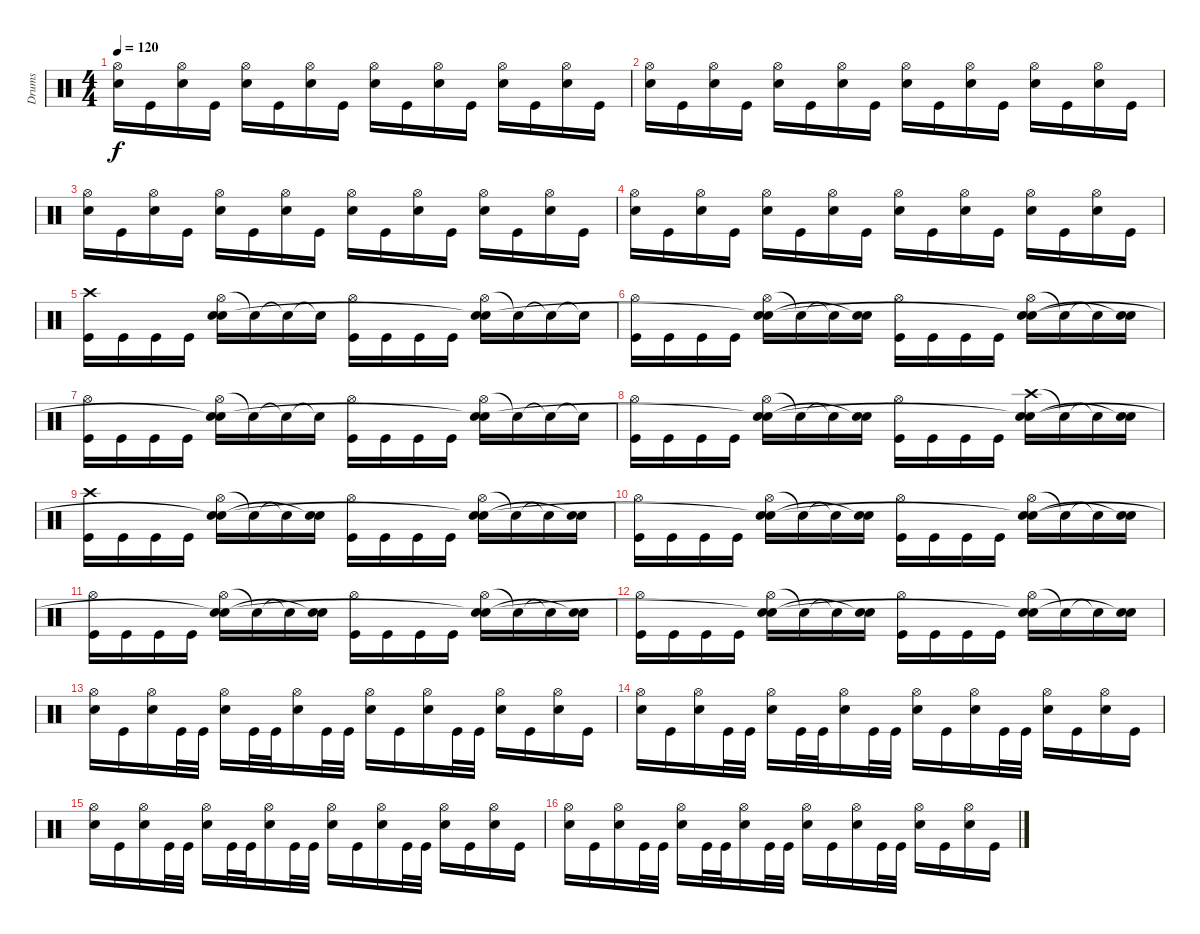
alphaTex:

\track ("Drums" "Drums") {instrument percussion}
\staff {score}
\articulation defaults
\ts (4 4)
\tempo 120
\clef neutral
\ks c
("Hi-Hat (open)" "Electric Snare (hit)").16{dy f} "Kick (hit)".16 ("Hi-Hat (open)" "Electric Snare (hit)").16 "Kick (hit)".16 ("Hi-Hat (open)" "Electric Snare (hit)").16 "Kick (hit)".16 ("Hi-Hat (open)" "Electric Snare (hit)").16 "Kick (hit)".16 ("Hi-Hat (open)" "Electric Snare (hit)").16 "Kick (hit)".16 ("Hi-Hat (open)" "Electric Snare (hit)").16 "Kick (hit)".16 ("Hi-Hat (open)" "Electric Snare (hit)").16 "Kick (hit)".16 ("Hi-Hat (open)" "Electric Snare (hit)").16 "Kick (hit)".16 |
("Hi-Hat (open)" "Electric Snare (hit)").16 "Kick (hit)".16 ("Hi-Hat (open)" "Electric Snare (hit)").16 "Kick (hit)".16 ("Hi-Hat (open)" "Electric Snare (hit)").16 "Kick (hit)".16 ("Hi-Hat (open)" "Electric Snare (hit)").16 "Kick (hit)".16 ("Hi-Hat (open)" "Electric Snare (hit)").16 "Kick (hit)".16 ("Hi-Hat (open)" "Electric Snare (hit)").16 "Kick (hit)".16 ("Hi-Hat (open)" "Electric Snare (hit)").16 "Kick (hit)".16 ("Hi-Hat (open)" "Electric Snare (hit)").16 "Kick (hit)".16 |
("Hi-Hat (open)" "Electric Snare (hit)").16 "Kick (hit)".16 ("Hi-Hat (open)" "Electric Snare (hit)").16 "Kick (hit)".16 ("Hi-Hat (open)" "Electric Snare (hit)").16 "Kick (hit)".16 ("Hi-Hat (open)" "Electric Snare (hit)").16 "Kick (hit)".16 ("Hi-Hat (open)" "Electric Snare (hit)").16 "Kick (hit)".16 ("Hi-Hat (open)" "Electric Snare (hit)").16 "Kick (hit)".16 ("Hi-Hat (open)" "Electric Snare (hit)").16 "Kick (hit)".16 ("Hi-Hat (open)" "Electric Snare (hit)").16 "Kick (hit)".16 |
("Hi-Hat (open)" "Electric Snare (hit)").16 "Kick (hit)".16 ("Hi-Hat (open)" "Electric Snare (hit)").16 "Kick (hit)".16 ("Hi-Hat (open)" "Electric Snare (hit)").16 "Kick (hit)".16 ("Hi-Hat (open)" "Electric Snare (hit)").16 "Kick (hit)".16 ("Hi-Hat (open)" "Electric Snare (hit)").16 "Kick (hit)".16 ("Hi-Hat (open)" "Electric Snare (hit)").16 "Kick (hit)".16 ("Hi-Hat (open)" "Electric Snare (hit)").16 "Kick (hit)".16 ("Hi-Hat (open)" "Electric Snare (hit)").16 "Kick (hit)".16 |
("Crash high (hit)" "Kick (hit)").16 "Kick (hit)".16 "Kick (hit)".16 "Kick (hit)".16 ("Hi-Hat (open)" "Electric Snare (hit)" "Snare (hit)").16 "Snare (hit)"{t}.16 "Snare (hit)"{t}.16 "Snare (hit)"{t}.16 ("Hi-Hat (open)" "Kick (hit)").16 "Kick (hit)".16 "Kick (hit)".16 "Kick (hit)".16 ("Hi-Hat (open)" "Electric Snare (hit)" "Snare (hit)"{t}).16 "Snare (hit)"{t}.16 "Snare (hit)"{t}.16 "Snare (hit)"{t}.16 |
("Hi-Hat (open)" "Kick (hit)").16 "Kick (hit)".16 "Kick (hit)".16 "Kick (hit)".16 ("Hi-Hat (open)" "Electric Snare (hit)" "Snare (hit)"{t}).16 "Snare (hit)"{t}.16 "Snare (hit)"{t}.16 ("Electric Snare (hit)" "Snare (hit)"{t}).16 ("Hi-Hat (open)" "Kick (hit)").16 "Kick (hit)".16 "Kick (hit)".16 "Kick (hit)".16 ("Hi-Hat (open)" "Electric Snare (hit)" "Snare (hit)"{t}).16 "Snare (hit)"{t}.16 "Snare (hit)"{t}.16 ("Electric Snare (hit)" "Snare (hit)"{t}).16 |
("Hi-Hat (open)" "Kick (hit)").16 "Kick (hit)".16 "Kick (hit)".16 "Kick (hit)".16 ("Hi-Hat (open)" "Electric Snare (hit)" "Snare (hit)"{t}).16 "Snare (hit)"{t}.16 "Snare (hit)"{t}.16 "Snare (hit)"{t}.16 ("Hi-Hat (open)" "Kick (hit)").16 "Kick (hit)".16 "Kick (hit)".16 "Kick (hit)".16 ("Hi-Hat (open)" "Electric Snare (hit)" "Snare (hit)"{t}).16 "Snare (hit)"{t}.16 "Snare (hit)"{t}.16 "Snare (hit)"{t}.16 |
("Hi-Hat (open)" "Kick (hit)").16 "Kick (hit)".16 "Kick (hit)".16 "Kick (hit)".16 ("Hi-Hat (open)" "Electric Snare (hit)" "Snare (hit)"{t}).16 "Snare (hit)"{t}.16 "Snare (hit)"{t}.16 ("Electric Snare (hit)" "Snare (hit)"{t}).16 ("Hi-Hat (open)" "Kick (hit)").16 "Kick (hit)".16 "Kick (hit)".16 "Kick (hit)".16 ("Crash high (hit)" "Electric Snare (hit)" "Snare (hit)"{t}).16 "Snare (hit)"{t}.16 "Snare (hit)"{t}.16 ("Electric Snare (hit)" "Snare (hit)"{t}).16 |
("Crash high (hit)" "Kick (hit)").16 "Kick (hit)".16 "Kick (hit)".16 "Kick (hit)".16 ("Hi-Hat (open)" "Electric Snare (hit)" "Snare (hit)"{t}).16 "Snare (hit)"{t}.16 "Snare (hit)"{t}.16 ("Electric Snare (hit)" "Snare (hit)"{t}).16 ("Hi-Hat (open)" "Kick (hit)").16 "Kick (hit)".16 "Kick (hit)".16 "Kick (hit)".16 ("Hi-Hat (open)" "Electric Snare (hit)" "Snare (hit)"{t}).16 "Snare (hit)"{t}.16 "Snare (hit)"{t}.16 ("Electric Snare (hit)" "Snare (hit)"{t}).16 |
("Hi-Hat (open)" "Kick (hit)").16 "Kick (hit)".16 "Kick (hit)".16 "Kick (hit)".16 ("Hi-Hat (open)" "Electric Snare (hit)" "Snare (hit)"{t}).16 "Snare (hit)"{t}.16 "Snare (hit)"{t}.16 ("Electric Snare (hit)" "Snare (hit)"{t}).16 ("Hi-Hat (open)" "Kick (hit)").16 "Kick (hit)".16 "Kick (hit)".16 "Kick (hit)".16 ("Hi-Hat (open)" "Electric Snare (hit)" "Snare (hit)"{t}).16 "Snare (hit)"{t}.16 "Snare (hit)"{t}.16 ("Electric Snare (hit)" "Snare (hit)"{t}).16 |
("Hi-Hat (open)" "Kick (hit)").16 "Kick (hit)".16 "Kick (hit)".16 "Kick (hit)".16 ("Hi-Hat (open)" "Electric Snare (hit)" "Snare (hit)"{t}).16 "Snare (hit)"{t}.16 "Snare (hit)"{t}.16 ("Electric Snare (hit)" "Snare (hit)"{t}).16 ("Hi-Hat (open)" "Kick (hit)").16 "Kick (hit)".16 "Kick (hit)".16 "Kick (hit)".16 ("Hi-Hat (open)" "Electric Snare (hit)" "Snare (hit)"{t}).16 "Snare (hit)"{t}.16 "Snare (hit)"{t}.16 ("Electric Snare (hit)" "Snare (hit)"{t}).16 |
("Hi-Hat (open)" "Kick (hit)").16 "Kick (hit)".16 "Kick (hit)".16 "Kick (hit)".16 ("Hi-Hat (open)" "Electric Snare (hit)" "Snare (hit)"{t}).16 "Snare (hit)"{t}.16 "Snare (hit)"{t}.16 ("Electric Snare (hit)" "Snare (hit)"{t}).16 ("Hi-Hat (open)" "Kick (hit)").16 "Kick (hit)".16 "Kick (hit)".16 "Kick (hit)".16 ("Hi-Hat (open)" "Electric Snare (hit)" "Snare (hit)"{t}).16 "Snare (hit)"{t}.16 "Snare (hit)"{t}.16 ("Electric Snare (hit)" "Snare (hit)"{t}).16 |
("Hi-Hat (open)" "Electric Snare (hit)").16 "Kick (hit)".16 ("Hi-Hat (open)" "Electric Snare (hit)").16 "Kick (hit)".32 "Kick (hit)".32 ("Hi-Hat (open)" "Electric Snare (hit)").16 "Kick (hit)".32 "Kick (hit)".32 ("Hi-Hat (open)" "Electric Snare (hit)").16 "Kick (hit)".32 "Kick (hit)".32 ("Hi-Hat (open)" "Electric Snare (hit)").16 "Kick (hit)".16 ("Hi-Hat (open)" "Electric Snare (hit)").16 "Kick (hit)".32 "Kick (hit)".32 ("Hi-Hat (open)" "Electric Snare (hit)").16 "Kick (hit)".16 ("Hi-Hat (open)" "Electric Snare (hit)").16 "Kick (hit)".16 |
("Hi-Hat (open)" "Electric Snare (hit)").16 "Kick (hit)".16 ("Hi-Hat (open)" "Electric Snare (hit)").16 "Kick (hit)".32 "Kick (hit)".32 ("Hi-Hat (open)" "Electric Snare (hit)").16 "Kick (hit)".32 "Kick (hit)".32 ("Hi-Hat (open)" "Electric Snare (hit)").16 "Kick (hit)".32 "Kick (hit)".32 ("Hi-Hat (open)" "Electric Snare (hit)").16 "Kick (hit)".16 ("Hi-Hat (open)" "Electric Snare (hit)").16 "Kick (hit)".32 "Kick (hit)".32 ("Hi-Hat (open)" "Electric Snare (hit)").16 "Kick (hit)".16 ("Hi-Hat (open)" "Electric Snare (hit)").16 "Kick (hit)".16 |
("Hi-Hat (open)" "Electric Snare (hit)").16 "Kick (hit)".16 ("Hi-Hat (open)" "Electric Snare (hit)").16 "Kick (hit)".32 "Kick (hit)".32 ("Hi-Hat (open)" "Electric Snare (hit)").16 "Kick (hit)".32 "Kick (hit)".32 ("Hi-Hat (open)" "Electric Snare (hit)").16 "Kick (hit)".32 "Kick (hit)".32 ("Hi-Hat (open)" "Electric Snare (hit)").16 "Kick (hit)".16 ("Hi-Hat (open)" "Electric Snare (hit)").16 "Kick (hit)".32 "Kick (hit)".32 ("Hi-Hat (open)" "Electric Snare (hit)").16 "Kick (hit)".16 ("Hi-Hat (open)" "Electric Snare (hit)").16 "Kick (hit)".16 |
("Hi-Hat (open)" "Electric Snare (hit)").16 "Kick (hit)".16 ("Hi-Hat (open)" "Electric Snare (hit)").16 "Kick (hit)".32 "Kick (hit)".32 ("Hi-Hat (open)" "Electric Snare (hit)").16 "Kick (hit)".32 "Kick (hit)".32 ("Hi-Hat (open)" "Electric Snare (hit)").16 "Kick (hit)".32 "Kick (hit)".32 ("Hi-Hat (open)" "Electric Snare (hit)").16 "Kick (hit)".16 ("Hi-Hat (open)" "Electric Snare (hit)").16 "Kick (hit)".32 "Kick (hit)".32 ("Hi-Hat (open)" "Electric Snare (hit)").16 "Kick (hit)".16 ("Hi-Hat (open)" "Electric Snare (hit)").16 "Kick (hit)".16
